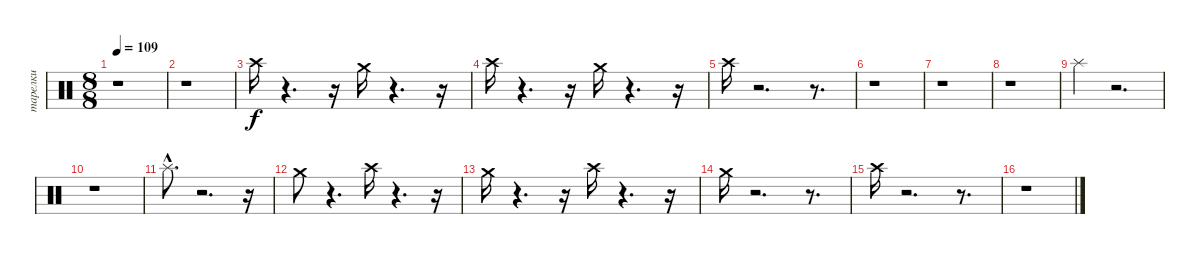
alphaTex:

\track ("тарелки" "тарелки") {instrument percussion}
\staff {score}
\articulation defaults
\ts (8 8)
\tempo 109
\clef neutral
\ks c
r.1{dy f} |
r.1 |
"Crash high (hit)".16 r.4{d} r.16 "Crash medium (hit)".16 r.4{d} r.16 |
"Crash high (hit)".16 r.4{d} r.16 "Crash medium (hit)".16 r.4{d} r.16 |
"Crash high (hit)".16 r.2{d} r.8{d} |
r.1 |
r.1 |
r.1 |
"Splash (hit)".4 r.2{d} |
r.1 |
"Splash (hit)"{hac}.8{d} r.2{d} r.16 |
"Crash medium (hit)".8 r.4{d} "Crash high (hit)".16 r.4{d} r.16 |
"Crash medium (hit)".16 r.4{d} r.16 "Crash high (hit)".16 r.4{d} r.16 |
"Crash medium (hit)".16 r.2{d} r.8{d} |
"Crash high (hit)".16 r.2{d} r.8{d} |
r.1
